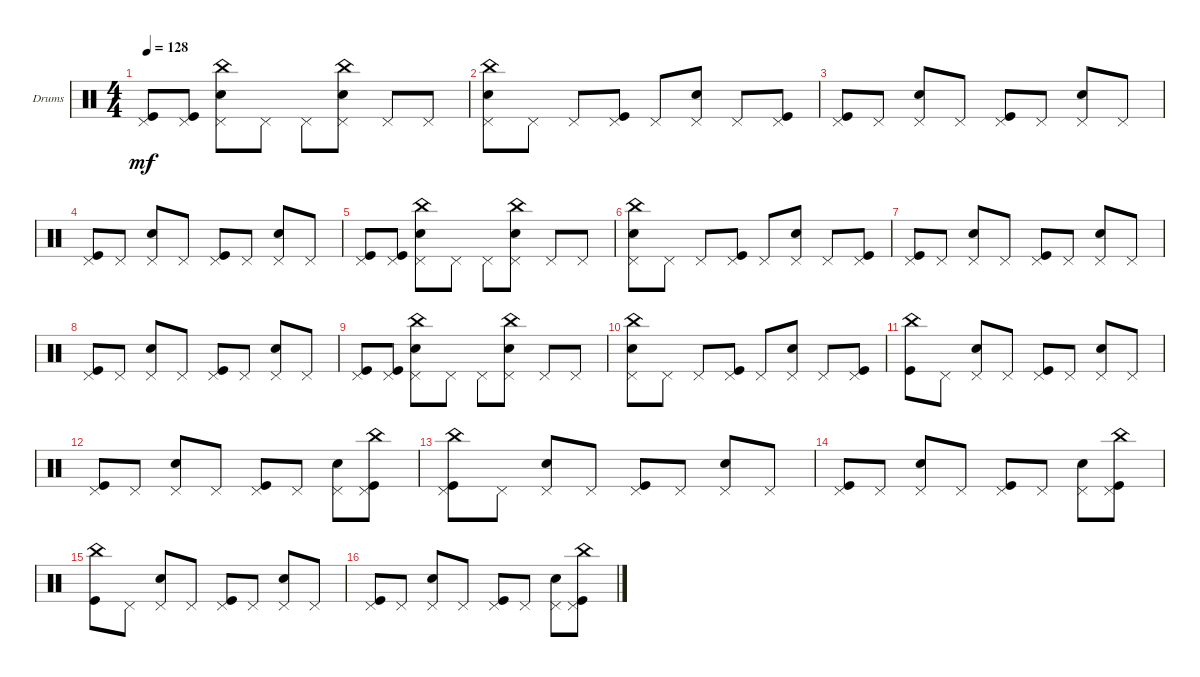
\defaultSystemsLayout 4
\bracketExtendMode groupsimilarinstruments
\firstSystemTrackNameOrientation horizontal
\otherSystemsTrackNameOrientation horizontal
\track ("Drumkit" "Drums") {instrument percussion}
\staff {score}
\articulation defaults
\ts (4 4)
\tempo 128
\clef neutral
\ks c
("Pedal Hi-Hat (hit)" "Kick (hit)").8{dy mf} ("Pedal Hi-Hat (hit)" "Kick (hit)").8 ("Pedal Hi-Hat (hit)" "Snare (hit) 2" "China (hit)").8 "Pedal Hi-Hat (hit)".8 "Pedal Hi-Hat (hit)".8 ("Pedal Hi-Hat (hit)" "China (hit)" "Snare (hit) 2").8 "Pedal Hi-Hat (hit)".8 "Pedal Hi-Hat (hit)".8 |
("Snare (hit) 2" "China (hit)" "Pedal Hi-Hat (hit)").8 "Pedal Hi-Hat (hit)".8 "Pedal Hi-Hat (hit)".8 ("Pedal Hi-Hat (hit)" "Kick (hit)").8 "Pedal Hi-Hat (hit)".8 ("Pedal Hi-Hat (hit)" "Snare (hit) 2").8 "Pedal Hi-Hat (hit)".8 ("Pedal Hi-Hat (hit)" "Kick (hit)").8 |
("Kick (hit)" "Pedal Hi-Hat (hit)").8 "Pedal Hi-Hat (hit)".8 ("Pedal Hi-Hat (hit)" "Snare (hit) 2").8 "Pedal Hi-Hat (hit)".8 ("Pedal Hi-Hat (hit)" "Kick (hit)").8 "Pedal Hi-Hat (hit)".8 ("Pedal Hi-Hat (hit)" "Snare (hit) 2").8 "Pedal Hi-Hat (hit)".8 |
("Kick (hit)" "Pedal Hi-Hat (hit)").8 "Pedal Hi-Hat (hit)".8 ("Pedal Hi-Hat (hit)" "Snare (hit) 2").8 "Pedal Hi-Hat (hit)".8 ("Pedal Hi-Hat (hit)" "Kick (hit)").8 "Pedal Hi-Hat (hit)".8 ("Pedal Hi-Hat (hit)" "Snare (hit) 2").8 "Pedal Hi-Hat (hit)".8 |
("Pedal Hi-Hat (hit)" "Kick (hit)").8 ("Pedal Hi-Hat (hit)" "Kick (hit)").8 ("Pedal Hi-Hat (hit)" "Snare (hit) 2" "China (hit)").8 "Pedal Hi-Hat (hit)".8 "Pedal Hi-Hat (hit)".8 ("Pedal Hi-Hat (hit)" "China (hit)" "Snare (hit) 2").8 "Pedal Hi-Hat (hit)".8 "Pedal Hi-Hat (hit)".8 |
("Snare (hit) 2" "China (hit)" "Pedal Hi-Hat (hit)").8 "Pedal Hi-Hat (hit)".8 "Pedal Hi-Hat (hit)".8 ("Pedal Hi-Hat (hit)" "Kick (hit)").8 "Pedal Hi-Hat (hit)".8 ("Pedal Hi-Hat (hit)" "Snare (hit) 2").8 "Pedal Hi-Hat (hit)".8 ("Pedal Hi-Hat (hit)" "Kick (hit)").8 |
("Kick (hit)" "Pedal Hi-Hat (hit)").8 "Pedal Hi-Hat (hit)".8 ("Pedal Hi-Hat (hit)" "Snare (hit) 2").8 "Pedal Hi-Hat (hit)".8 ("Pedal Hi-Hat (hit)" "Kick (hit)").8 "Pedal Hi-Hat (hit)".8 ("Pedal Hi-Hat (hit)" "Snare (hit) 2").8 "Pedal Hi-Hat (hit)".8 |
("Kick (hit)" "Pedal Hi-Hat (hit)").8 "Pedal Hi-Hat (hit)".8 ("Pedal Hi-Hat (hit)" "Snare (hit) 2").8 "Pedal Hi-Hat (hit)".8 ("Pedal Hi-Hat (hit)" "Kick (hit)").8 "Pedal Hi-Hat (hit)".8 ("Pedal Hi-Hat (hit)" "Snare (hit) 2").8 "Pedal Hi-Hat (hit)".8 |
("Pedal Hi-Hat (hit)" "Kick (hit)").8 ("Pedal Hi-Hat (hit)" "Kick (hit)").8 ("Pedal Hi-Hat (hit)" "Snare (hit) 2" "China (hit)").8 "Pedal Hi-Hat (hit)".8 "Pedal Hi-Hat (hit)".8 ("Pedal Hi-Hat (hit)" "China (hit)" "Snare (hit) 2").8 "Pedal Hi-Hat (hit)".8 "Pedal Hi-Hat (hit)".8 |
("Snare (hit) 2" "China (hit)" "Pedal Hi-Hat (hit)").8 "Pedal Hi-Hat (hit)".8 "Pedal Hi-Hat (hit)".8 ("Pedal Hi-Hat (hit)" "Kick (hit)").8 "Pedal Hi-Hat (hit)".8 ("Pedal Hi-Hat (hit)" "Snare (hit) 2").8 "Pedal Hi-Hat (hit)".8 ("Pedal Hi-Hat (hit)" "Kick (hit)").8 |
("Kick (hit)" "China (hit)").8 "Pedal Hi-Hat (hit)".8 ("Snare (hit) 2" "Pedal Hi-Hat (hit)").8 "Pedal Hi-Hat (hit)".8 ("Pedal Hi-Hat (hit)" "Kick (hit)").8 "Pedal Hi-Hat (hit)".8 ("Pedal Hi-Hat (hit)" "Snare (hit) 2").8 "Pedal Hi-Hat (hit)".8 |
("Kick (hit)" "Pedal Hi-Hat (hit)").8 "Pedal Hi-Hat (hit)".8 ("Pedal Hi-Hat (hit)" "Snare (hit) 2").8 "Pedal Hi-Hat (hit)".8 ("Pedal Hi-Hat (hit)" "Kick (hit)").8 "Pedal Hi-Hat (hit)".8 ("Pedal Hi-Hat (hit)" "Snare (hit) 2").8 ("Pedal Hi-Hat (hit)" "China (hit)" "Kick (hit)").8 |
("China (hit)" "Pedal Hi-Hat (hit)" "Kick (hit)").8 "Pedal Hi-Hat (hit)".8 ("Pedal Hi-Hat (hit)" "Snare (hit) 2").8 "Pedal Hi-Hat (hit)".8 ("Pedal Hi-Hat (hit)" "Kick (hit)").8 "Pedal Hi-Hat (hit)".8 ("Pedal Hi-Hat (hit)" "Snare (hit) 2").8 "Pedal Hi-Hat (hit)".8 |
("Kick (hit)" "Pedal Hi-Hat (hit)").8 "Pedal Hi-Hat (hit)".8 ("Pedal Hi-Hat (hit)" "Snare (hit) 2").8 "Pedal Hi-Hat (hit)".8 ("Pedal Hi-Hat (hit)" "Kick (hit)").8 "Pedal Hi-Hat (hit)".8 ("Pedal Hi-Hat (hit)" "Snare (hit) 2").8 ("Pedal Hi-Hat (hit)" "China (hit)" "Kick (hit)").8 |
("Kick (hit)" "China (hit)").8 "Pedal Hi-Hat (hit)".8 ("Snare (hit) 2" "Pedal Hi-Hat (hit)").8 "Pedal Hi-Hat (hit)".8 ("Pedal Hi-Hat (hit)" "Kick (hit)").8 "Pedal Hi-Hat (hit)".8 ("Pedal Hi-Hat (hit)" "Snare (hit) 2").8 "Pedal Hi-Hat (hit)".8 |
("Kick (hit)" "Pedal Hi-Hat (hit)").8 "Pedal Hi-Hat (hit)".8 ("Pedal Hi-Hat (hit)" "Snare (hit) 2").8 "Pedal Hi-Hat (hit)".8 ("Pedal Hi-Hat (hit)" "Kick (hit)").8 "Pedal Hi-Hat (hit)".8 ("Pedal Hi-Hat (hit)" "Snare (hit) 2").8 ("Pedal Hi-Hat (hit)" "China (hit)" "Kick (hit)").8
